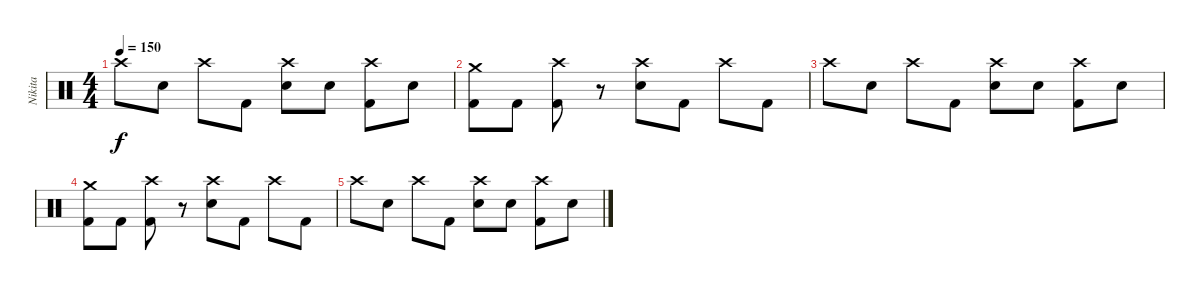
\track ("Nikita" "Nikita") {instrument percussion}
\staff {score}
\articulation defaults
\ts (4 4)
\tempo 150
\clef neutral
\ks c "Crash high (hit)".8{dy f} "Electric Snare (hit)".8 "Crash high (hit)".8 "Kick (hit) 2".8
("Crash high (hit)" "Electric Snare (hit)").8 "Electric Snare (hit)".8 ("Crash high (hit)" "Kick (hit) 2").8 "Electric Snare (hit)".8 |
("Crash medium (hit)" "Kick (hit) 2").8 "Kick (hit) 2".8 ("Crash high (hit)" "Kick (hit) 2").8 r.8 ("Crash high (hit)" "Electric Snare (hit)").8 "Kick (hit) 2".8 "Crash high (hit)".8 "Kick (hit) 2".8 |
"Crash high (hit)".8 "Electric Snare (hit)".8 "Crash high (hit)".8 "Kick (hit) 2".8 ("Crash high (hit)" "Electric Snare (hit)").8 "Electric Snare (hit)".8 ("Crash high (hit)" "Kick (hit) 2").8 "Electric Snare (hit)".8 |
("Crash medium (hit)" "Kick (hit) 2").8 "Kick (hit) 2".8 ("Crash high (hit)" "Kick (hit) 2").8 r.8 ("Crash high (hit)" "Electric Snare (hit)").8 "Kick (hit) 2".8 "Crash high (hit)".8 "Kick (hit) 2".8 |
"Crash high (hit)".8 "Electric Snare (hit)".8 "Crash high (hit)".8 "Kick (hit) 2".8 ("Crash high (hit)" "Electric Snare (hit)").8 "Electric Snare (hit)".8 ("Crash high (hit)" "Kick (hit) 2").8 "Electric Snare (hit)".8
